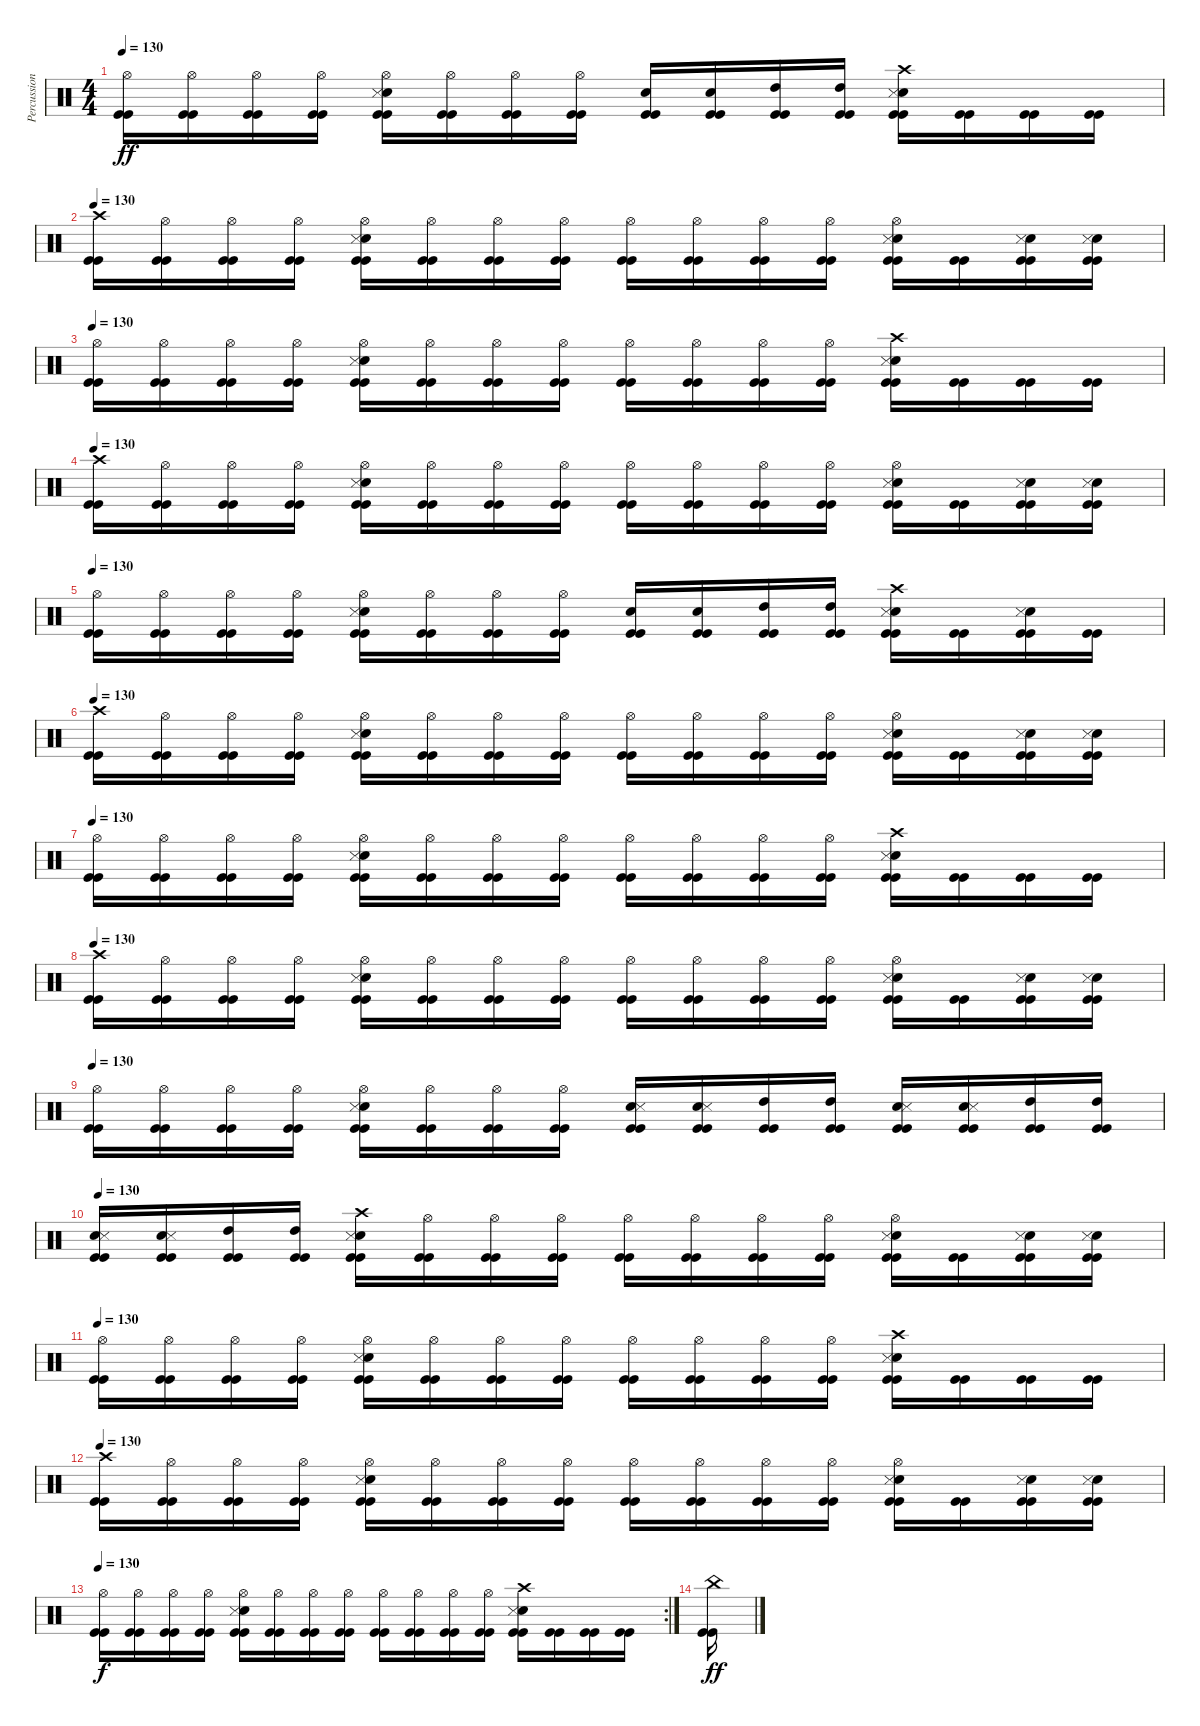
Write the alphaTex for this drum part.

\track ("Percussion" "Percussion") {instrument percussion}
\staff {score}
\articulation defaults
\ts (4 4)
\tempo 130
\clef neutral
\ks c
("Hi-Hat (open)" "Kick (hit)" "Kick (hit)").16{dy ff} ("Hi-Hat (open)" "Kick (hit)" "Kick (hit)").16 ("Hi-Hat (open)" "Kick (hit)" "Kick (hit)").16 ("Hi-Hat (open)" "Kick (hit)" "Kick (hit)").16 ("Electric Snare (hit)" "Snare (side stick) 3" "Hi-Hat (open)" "Kick (hit)" "Kick (hit)").16 ("Hi-Hat (open)" "Kick (hit)" "Kick (hit)").16 ("Hi-Hat (open)" "Kick (hit)" "Kick (hit)").16 ("Hi-Hat (open)" "Kick (hit)" "Kick (hit)").16 ("Electric Snare (hit)" "Kick (hit)" "Kick (hit)").16 ("Electric Snare (hit)" "Kick (hit)" "Kick (hit)").16 ("High Tom (hit)" "Kick (hit)" "Kick (hit)").16 ("High Tom (hit)" "Kick (hit)" "Kick (hit)").16 ("Electric Snare (hit)" "Snare (side stick) 3" "Crash high (hit)" "Kick (hit)" "Kick (hit)").16 ("Kick (hit)" "Kick (hit)").16 ("Kick (hit)" "Kick (hit)").16 ("Kick (hit)" "Kick (hit)").16 |
\tempo 130
("Crash high (hit)" "Kick (hit)" "Kick (hit)").16 ("Hi-Hat (open)" "Kick (hit)" "Kick (hit)").16 ("Hi-Hat (open)" "Kick (hit)" "Kick (hit)").16 ("Hi-Hat (open)" "Kick (hit)" "Kick (hit)").16 ("Electric Snare (hit)" "Snare (side stick) 3" "Hi-Hat (open)" "Kick (hit)" "Kick (hit)").16 ("Hi-Hat (open)" "Kick (hit)" "Kick (hit)").16 ("Hi-Hat (open)" "Kick (hit)" "Kick (hit)").16 ("Hi-Hat (open)" "Kick (hit)" "Kick (hit)").16 ("Hi-Hat (open)" "Kick (hit)" "Kick (hit)").16 ("Hi-Hat (open)" "Kick (hit)" "Kick (hit)").16 ("Hi-Hat (open)" "Kick (hit)" "Kick (hit)").16 ("Hi-Hat (open)" "Kick (hit)" "Kick (hit)").16 ("Electric Snare (hit)" "Snare (side stick) 3" "Hi-Hat (open)" "Kick (hit)" "Kick (hit)").16 ("Kick (hit)" "Kick (hit)").16 ("Electric Snare (hit)" "Snare (side stick) 3" "Kick (hit)" "Kick (hit)").16 ("Electric Snare (hit)" "Snare (side stick) 3" "Kick (hit)" "Kick (hit)").16 |
\tempo 130
("Hi-Hat (open)" "Kick (hit)" "Kick (hit)").16 ("Hi-Hat (open)" "Kick (hit)" "Kick (hit)").16 ("Hi-Hat (open)" "Kick (hit)" "Kick (hit)").16 ("Hi-Hat (open)" "Kick (hit)" "Kick (hit)").16 ("Electric Snare (hit)" "Snare (side stick) 3" "Hi-Hat (open)" "Kick (hit)" "Kick (hit)").16 ("Hi-Hat (open)" "Kick (hit)" "Kick (hit)").16 ("Hi-Hat (open)" "Kick (hit)" "Kick (hit)").16 ("Hi-Hat (open)" "Kick (hit)" "Kick (hit)").16 ("Hi-Hat (open)" "Kick (hit)" "Kick (hit)").16 ("Hi-Hat (open)" "Kick (hit)" "Kick (hit)").16 ("Hi-Hat (open)" "Kick (hit)" "Kick (hit)").16 ("Hi-Hat (open)" "Kick (hit)" "Kick (hit)").16 ("Electric Snare (hit)" "Snare (side stick) 3" "Crash high (hit)" "Kick (hit)" "Kick (hit)").16 ("Kick (hit)" "Kick (hit)").16 ("Kick (hit)" "Kick (hit)").16 ("Kick (hit)" "Kick (hit)").16 |
\tempo 130
("Crash high (hit)" "Kick (hit)" "Kick (hit)").16 ("Hi-Hat (open)" "Kick (hit)" "Kick (hit)").16 ("Hi-Hat (open)" "Kick (hit)" "Kick (hit)").16 ("Hi-Hat (open)" "Kick (hit)" "Kick (hit)").16 ("Electric Snare (hit)" "Snare (side stick) 3" "Hi-Hat (open)" "Kick (hit)" "Kick (hit)").16 ("Hi-Hat (open)" "Kick (hit)" "Kick (hit)").16 ("Hi-Hat (open)" "Kick (hit)" "Kick (hit)").16 ("Hi-Hat (open)" "Kick (hit)" "Kick (hit)").16 ("Hi-Hat (open)" "Kick (hit)" "Kick (hit)").16 ("Hi-Hat (open)" "Kick (hit)" "Kick (hit)").16 ("Hi-Hat (open)" "Kick (hit)" "Kick (hit)").16 ("Hi-Hat (open)" "Kick (hit)" "Kick (hit)").16 ("Electric Snare (hit)" "Snare (side stick) 3" "Hi-Hat (open)" "Kick (hit)" "Kick (hit)").16 ("Kick (hit)" "Kick (hit)").16 ("Electric Snare (hit)" "Snare (side stick) 3" "Kick (hit)" "Kick (hit)").16 ("Electric Snare (hit)" "Snare (side stick) 3" "Kick (hit)" "Kick (hit)").16 |
\tempo 130
("Hi-Hat (open)" "Kick (hit)" "Kick (hit)").16 ("Hi-Hat (open)" "Kick (hit)" "Kick (hit)").16 ("Hi-Hat (open)" "Kick (hit)" "Kick (hit)").16 ("Hi-Hat (open)" "Kick (hit)" "Kick (hit)").16 ("Electric Snare (hit)" "Snare (side stick) 3" "Hi-Hat (open)" "Kick (hit)" "Kick (hit)").16 ("Hi-Hat (open)" "Kick (hit)" "Kick (hit)").16 ("Hi-Hat (open)" "Kick (hit)" "Kick (hit)").16 ("Hi-Hat (open)" "Kick (hit)" "Kick (hit)").16 ("Electric Snare (hit)" "Kick (hit)" "Kick (hit)").16 ("Electric Snare (hit)" "Kick (hit)" "Kick (hit)").16 ("High Tom (hit)" "Kick (hit)" "Kick (hit)").16 ("High Tom (hit)" "Kick (hit)" "Kick (hit)").16 ("Electric Snare (hit)" "Snare (side stick) 3" "Crash high (hit)" "Kick (hit)" "Kick (hit)").16 ("Kick (hit)" "Kick (hit)").16 ("Electric Snare (hit)" "Snare (side stick) 3" "Kick (hit)" "Kick (hit)").16 ("Kick (hit)" "Kick (hit)").16 |
\tempo 130
("Crash high (hit)" "Kick (hit)" "Kick (hit)").16 ("Hi-Hat (open)" "Kick (hit)" "Kick (hit)").16 ("Hi-Hat (open)" "Kick (hit)" "Kick (hit)").16 ("Hi-Hat (open)" "Kick (hit)" "Kick (hit)").16 ("Electric Snare (hit)" "Snare (side stick) 3" "Hi-Hat (open)" "Kick (hit)" "Kick (hit)").16 ("Hi-Hat (open)" "Kick (hit)" "Kick (hit)").16 ("Hi-Hat (open)" "Kick (hit)" "Kick (hit)").16 ("Hi-Hat (open)" "Kick (hit)" "Kick (hit)").16 ("Hi-Hat (open)" "Kick (hit)" "Kick (hit)").16 ("Hi-Hat (open)" "Kick (hit)" "Kick (hit)").16 ("Hi-Hat (open)" "Kick (hit)" "Kick (hit)").16 ("Hi-Hat (open)" "Kick (hit)" "Kick (hit)").16 ("Electric Snare (hit)" "Snare (side stick) 3" "Hi-Hat (open)" "Kick (hit)" "Kick (hit)").16 ("Kick (hit)" "Kick (hit)").16 ("Electric Snare (hit)" "Snare (side stick) 3" "Kick (hit)" "Kick (hit)").16 ("Electric Snare (hit)" "Snare (side stick) 3" "Kick (hit)" "Kick (hit)").16 |
\tempo 130
("Hi-Hat (open)" "Kick (hit)" "Kick (hit)").16 ("Hi-Hat (open)" "Kick (hit)" "Kick (hit)").16 ("Hi-Hat (open)" "Kick (hit)" "Kick (hit)").16 ("Hi-Hat (open)" "Kick (hit)" "Kick (hit)").16 ("Electric Snare (hit)" "Snare (side stick) 3" "Hi-Hat (open)" "Kick (hit)" "Kick (hit)").16 ("Hi-Hat (open)" "Kick (hit)" "Kick (hit)").16 ("Hi-Hat (open)" "Kick (hit)" "Kick (hit)").16 ("Hi-Hat (open)" "Kick (hit)" "Kick (hit)").16 ("Hi-Hat (open)" "Kick (hit)" "Kick (hit)").16 ("Hi-Hat (open)" "Kick (hit)" "Kick (hit)").16 ("Hi-Hat (open)" "Kick (hit)" "Kick (hit)").16 ("Hi-Hat (open)" "Kick (hit)" "Kick (hit)").16 ("Electric Snare (hit)" "Snare (side stick) 3" "Crash high (hit)" "Kick (hit)" "Kick (hit)").16 ("Kick (hit)" "Kick (hit)").16 ("Kick (hit)" "Kick (hit)").16 ("Kick (hit)" "Kick (hit)").16 |
\tempo 130
("Crash high (hit)" "Kick (hit)" "Kick (hit)").16 ("Hi-Hat (open)" "Kick (hit)" "Kick (hit)").16 ("Hi-Hat (open)" "Kick (hit)" "Kick (hit)").16 ("Hi-Hat (open)" "Kick (hit)" "Kick (hit)").16 ("Electric Snare (hit)" "Snare (side stick) 3" "Hi-Hat (open)" "Kick (hit)" "Kick (hit)").16 ("Hi-Hat (open)" "Kick (hit)" "Kick (hit)").16 ("Hi-Hat (open)" "Kick (hit)" "Kick (hit)").16 ("Hi-Hat (open)" "Kick (hit)" "Kick (hit)").16 ("Hi-Hat (open)" "Kick (hit)" "Kick (hit)").16 ("Hi-Hat (open)" "Kick (hit)" "Kick (hit)").16 ("Hi-Hat (open)" "Kick (hit)" "Kick (hit)").16 ("Hi-Hat (open)" "Kick (hit)" "Kick (hit)").16 ("Electric Snare (hit)" "Snare (side stick) 3" "Hi-Hat (open)" "Kick (hit)" "Kick (hit)").16 ("Kick (hit)" "Kick (hit)").16 ("Electric Snare (hit)" "Snare (side stick) 3" "Kick (hit)" "Kick (hit)").16 ("Electric Snare (hit)" "Snare (side stick) 3" "Kick (hit)" "Kick (hit)").16 |
\tempo 130
("Hi-Hat (open)" "Kick (hit)" "Kick (hit)").16 ("Hi-Hat (open)" "Kick (hit)" "Kick (hit)").16 ("Hi-Hat (open)" "Kick (hit)" "Kick (hit)").16 ("Hi-Hat (open)" "Kick (hit)" "Kick (hit)").16 ("Electric Snare (hit)" "Snare (side stick) 3" "Hi-Hat (open)" "Kick (hit)" "Kick (hit)").16 ("Hi-Hat (open)" "Kick (hit)" "Kick (hit)").16 ("Hi-Hat (open)" "Kick (hit)" "Kick (hit)").16 ("Hi-Hat (open)" "Kick (hit)" "Kick (hit)").16 ("Electric Snare (hit)" "Snare (side stick) 3" "Kick (hit)" "Kick (hit)").16 ("Electric Snare (hit)" "Snare (side stick) 3" "Kick (hit)" "Kick (hit)").16 ("High Tom (hit)" "Kick (hit)" "Kick (hit)").16 ("High Tom (hit)" "Kick (hit)" "Kick (hit)").16 ("Electric Snare (hit)" "Snare (side stick) 3" "Kick (hit)" "Kick (hit)").16 ("Electric Snare (hit)" "Snare (side stick) 3" "Kick (hit)" "Kick (hit)").16 ("High Tom (hit)" "Kick (hit)" "Kick (hit)").16 ("High Tom (hit)" "Kick (hit)" "Kick (hit)").16 |
\tempo 130
("Electric Snare (hit)" "Snare (side stick) 3" "Kick (hit)" "Kick (hit)").16 ("Electric Snare (hit)" "Snare (side stick) 3" "Kick (hit)" "Kick (hit)").16 ("High Tom (hit)" "Kick (hit)" "Kick (hit)").16 ("High Tom (hit)" "Kick (hit)" "Kick (hit)").16 ("Electric Snare (hit)" "Snare (side stick) 3" "Crash high (hit)" "Kick (hit)" "Kick (hit)").16 ("Hi-Hat (open)" "Kick (hit)" "Kick (hit)").16 ("Hi-Hat (open)" "Kick (hit)" "Kick (hit)").16 ("Hi-Hat (open)" "Kick (hit)" "Kick (hit)").16 ("Hi-Hat (open)" "Kick (hit)" "Kick (hit)").16 ("Hi-Hat (open)" "Kick (hit)" "Kick (hit)").16 ("Hi-Hat (open)" "Kick (hit)" "Kick (hit)").16 ("Hi-Hat (open)" "Kick (hit)" "Kick (hit)").16 ("Electric Snare (hit)" "Snare (side stick) 3" "Hi-Hat (open)" "Kick (hit)" "Kick (hit)").16 ("Kick (hit)" "Kick (hit)").16 ("Electric Snare (hit)" "Snare (side stick) 3" "Kick (hit)" "Kick (hit)").16 ("Electric Snare (hit)" "Snare (side stick) 3" "Kick (hit)" "Kick (hit)").16 |
\tempo 130
("Hi-Hat (open)" "Kick (hit)" "Kick (hit)").16 ("Hi-Hat (open)" "Kick (hit)" "Kick (hit)").16 ("Hi-Hat (open)" "Kick (hit)" "Kick (hit)").16 ("Hi-Hat (open)" "Kick (hit)" "Kick (hit)").16 ("Electric Snare (hit)" "Snare (side stick) 3" "Hi-Hat (open)" "Kick (hit)" "Kick (hit)").16 ("Hi-Hat (open)" "Kick (hit)" "Kick (hit)").16 ("Hi-Hat (open)" "Kick (hit)" "Kick (hit)").16 ("Hi-Hat (open)" "Kick (hit)" "Kick (hit)").16 ("Hi-Hat (open)" "Kick (hit)" "Kick (hit)").16 ("Hi-Hat (open)" "Kick (hit)" "Kick (hit)").16 ("Hi-Hat (open)" "Kick (hit)" "Kick (hit)").16 ("Hi-Hat (open)" "Kick (hit)" "Kick (hit)").16 ("Electric Snare (hit)" "Snare (side stick) 3" "Crash high (hit)" "Kick (hit)" "Kick (hit)").16 ("Kick (hit)" "Kick (hit)").16 ("Kick (hit)" "Kick (hit)").16 ("Kick (hit)" "Kick (hit)").16 |
\tempo 130
("Crash high (hit)" "Kick (hit)" "Kick (hit)").16 ("Hi-Hat (open)" "Kick (hit)" "Kick (hit)").16 ("Hi-Hat (open)" "Kick (hit)" "Kick (hit)").16 ("Hi-Hat (open)" "Kick (hit)" "Kick (hit)").16 ("Electric Snare (hit)" "Snare (side stick) 3" "Hi-Hat (open)" "Kick (hit)" "Kick (hit)").16 ("Hi-Hat (open)" "Kick (hit)" "Kick (hit)").16 ("Hi-Hat (open)" "Kick (hit)" "Kick (hit)").16 ("Hi-Hat (open)" "Kick (hit)" "Kick (hit)").16 ("Hi-Hat (open)" "Kick (hit)" "Kick (hit)").16 ("Hi-Hat (open)" "Kick (hit)" "Kick (hit)").16 ("Hi-Hat (open)" "Kick (hit)" "Kick (hit)").16 ("Hi-Hat (open)" "Kick (hit)" "Kick (hit)").16 ("Electric Snare (hit)" "Snare (side stick) 3" "Hi-Hat (open)" "Kick (hit)" "Kick (hit)").16 ("Kick (hit)" "Kick (hit)").16 ("Electric Snare (hit)" "Snare (side stick) 3" "Kick (hit)" "Kick (hit)").16 ("Electric Snare (hit)" "Snare (side stick) 3" "Kick (hit)" "Kick (hit)").16 |
\rc 2
\tempo 130
("Hi-Hat (open)" "Kick (hit)" "Kick (hit)").16{dy f} ("Hi-Hat (open)" "Kick (hit)" "Kick (hit)").16 ("Hi-Hat (open)" "Kick (hit)" "Kick (hit)").16 ("Hi-Hat (open)" "Kick (hit)" "Kick (hit)").16 ("Electric Snare (hit)" "Snare (side stick) 3" "Hi-Hat (open)" "Kick (hit)" "Kick (hit)").16 ("Hi-Hat (open)" "Kick (hit)" "Kick (hit)").16 ("Hi-Hat (open)" "Kick (hit)" "Kick (hit)").16 ("Hi-Hat (open)" "Kick (hit)" "Kick (hit)").16 ("Hi-Hat (open)" "Kick (hit)" "Kick (hit)").16 ("Hi-Hat (open)" "Kick (hit)" "Kick (hit)").16 ("Hi-Hat (open)" "Kick (hit)" "Kick (hit)").16 ("Hi-Hat (open)" "Kick (hit)" "Kick (hit)").16 ("Electric Snare (hit)" "Snare (side stick) 3" "Crash high (hit)" "Kick (hit)" "Kick (hit)").16 ("Kick (hit)" "Kick (hit)").16 ("Kick (hit)" "Kick (hit)").16 ("Kick (hit)" "Kick (hit)").16 |
("China (hit)" "Kick (hit)" "Kick (hit)").16{dy ff}
